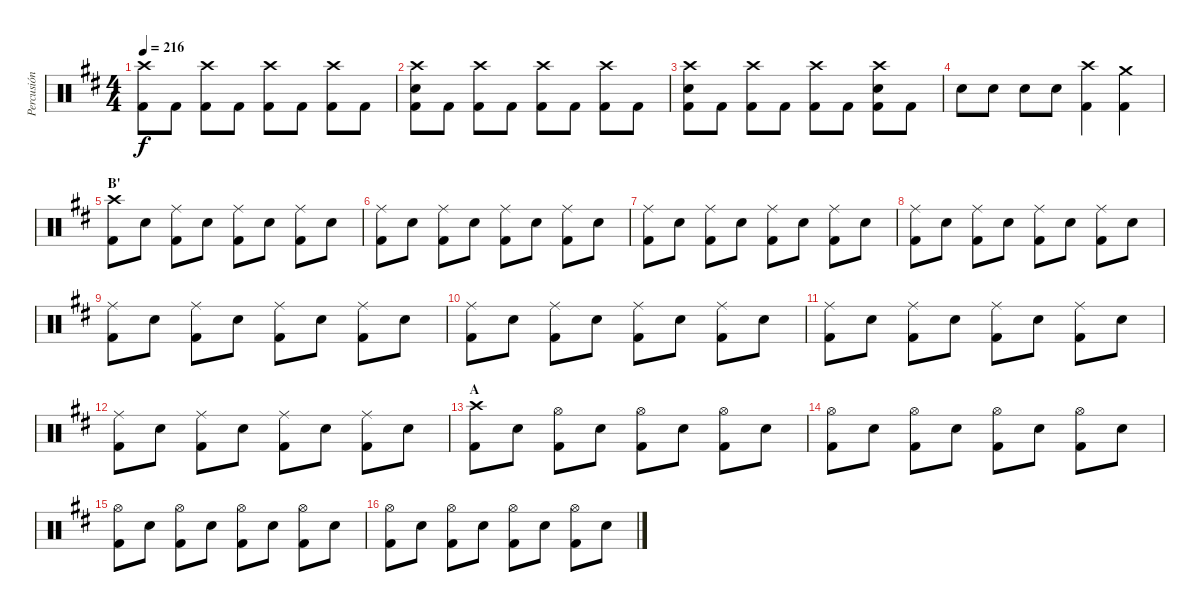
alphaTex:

\track ("Percusión" "Percusión") {instrument percussion}
\staff {score}
\articulation defaults
\ts (4 4)
\tempo 216
\clef neutral
\ks d
("Crash high (hit)" "Kick (hit) 2").8{dy f} "Kick (hit) 2".8 ("Crash high (hit)" "Kick (hit) 2").8 "Kick (hit) 2".8 ("Crash high (hit)" "Kick (hit) 2").8 "Kick (hit) 2".8 ("Crash high (hit)" "Kick (hit) 2").8 "Kick (hit) 2".8 |
("Crash high (hit)" "Electric Snare (hit)" "Kick (hit) 2").8 "Kick (hit) 2".8 ("Crash high (hit)" "Kick (hit) 2").8 "Kick (hit) 2".8 ("Crash high (hit)" "Kick (hit) 2").8 "Kick (hit) 2".8 ("Crash high (hit)" "Kick (hit) 2").8 "Kick (hit) 2".8 |
("Crash high (hit)" "Electric Snare (hit)" "Kick (hit) 2").8 "Kick (hit) 2".8 ("Crash high (hit)" "Kick (hit) 2").8 "Kick (hit) 2".8 ("Crash high (hit)" "Kick (hit) 2").8 "Kick (hit) 2".8 ("Crash high (hit)" "Electric Snare (hit)" "Kick (hit) 2").8 "Kick (hit) 2".8 |
"Electric Snare (hit)".8 "Electric Snare (hit)".8 "Electric Snare (hit)".8 "Electric Snare (hit)".8 ("Crash high (hit)" "Kick (hit) 2").4 ("Crash medium (hit)" "Kick (hit) 2").4 |
\section ("" "B'")
("Crash high (hit)" "Kick (hit) 2").8 "Electric Snare (hit)".8 ("Ride (middle)" "Kick (hit) 2").8 "Electric Snare (hit)".8 ("Ride (middle)" "Kick (hit) 2").8 "Electric Snare (hit)".8 ("Ride (middle)" "Kick (hit) 2").8 "Electric Snare (hit)".8 |
("Ride (middle)" "Kick (hit) 2").8 "Electric Snare (hit)".8 ("Ride (middle)" "Kick (hit) 2").8 "Electric Snare (hit)".8 ("Ride (middle)" "Kick (hit) 2").8 "Electric Snare (hit)".8 ("Ride (middle)" "Kick (hit) 2").8 "Electric Snare (hit)".8 |
("Ride (middle)" "Kick (hit) 2").8 "Electric Snare (hit)".8 ("Ride (middle)" "Kick (hit) 2").8 "Electric Snare (hit)".8 ("Ride (middle)" "Kick (hit) 2").8 "Electric Snare (hit)".8 ("Ride (middle)" "Kick (hit) 2").8 "Electric Snare (hit)".8 |
("Ride (middle)" "Kick (hit) 2").8 "Electric Snare (hit)".8 ("Ride (middle)" "Kick (hit) 2").8 "Electric Snare (hit)".8 ("Ride (middle)" "Kick (hit) 2").8 "Electric Snare (hit)".8 ("Ride (middle)" "Kick (hit) 2").8 "Electric Snare (hit)".8 |
("Ride (middle)" "Kick (hit) 2").8 "Electric Snare (hit)".8 ("Ride (middle)" "Kick (hit) 2").8 "Electric Snare (hit)".8 ("Ride (middle)" "Kick (hit) 2").8 "Electric Snare (hit)".8 ("Ride (middle)" "Kick (hit) 2").8 "Electric Snare (hit)".8 |
("Ride (middle)" "Kick (hit) 2").8 "Electric Snare (hit)".8 ("Ride (middle)" "Kick (hit) 2").8 "Electric Snare (hit)".8 ("Ride (middle)" "Kick (hit) 2").8 "Electric Snare (hit)".8 ("Ride (middle)" "Kick (hit) 2").8 "Electric Snare (hit)".8 |
("Ride (middle)" "Kick (hit) 2").8 "Electric Snare (hit)".8 ("Ride (middle)" "Kick (hit) 2").8 "Electric Snare (hit)".8 ("Ride (middle)" "Kick (hit) 2").8 "Electric Snare (hit)".8 ("Ride (middle)" "Kick (hit) 2").8 "Electric Snare (hit)".8 |
("Ride (middle)" "Kick (hit) 2").8 "Electric Snare (hit)".8 ("Ride (middle)" "Kick (hit) 2").8 "Electric Snare (hit)".8 ("Ride (middle)" "Kick (hit) 2").8 "Electric Snare (hit)".8 ("Ride (middle)" "Kick (hit) 2").8 "Electric Snare (hit)".8 |
\section ("" "A")
("Crash high (hit)" "Kick (hit) 2").8 "Electric Snare (hit)".8 ("Hi-Hat (open)" "Kick (hit) 2").8 "Electric Snare (hit)".8 ("Hi-Hat (open)" "Kick (hit) 2").8 "Electric Snare (hit)".8 ("Hi-Hat (open)" "Kick (hit) 2").8 "Electric Snare (hit)".8 |
("Hi-Hat (open)" "Kick (hit) 2").8 "Electric Snare (hit)".8 ("Hi-Hat (open)" "Kick (hit) 2").8 "Electric Snare (hit)".8 ("Hi-Hat (open)" "Kick (hit) 2").8 "Electric Snare (hit)".8 ("Hi-Hat (open)" "Kick (hit) 2").8 "Electric Snare (hit)".8 |
("Hi-Hat (open)" "Kick (hit) 2").8 "Electric Snare (hit)".8 ("Hi-Hat (open)" "Kick (hit) 2").8 "Electric Snare (hit)".8 ("Hi-Hat (open)" "Kick (hit) 2").8 "Electric Snare (hit)".8 ("Hi-Hat (open)" "Kick (hit) 2").8 "Electric Snare (hit)".8 |
("Hi-Hat (open)" "Kick (hit) 2").8 "Electric Snare (hit)".8 ("Hi-Hat (open)" "Kick (hit) 2").8 "Electric Snare (hit)".8 ("Hi-Hat (open)" "Kick (hit) 2").8 "Electric Snare (hit)".8 ("Hi-Hat (open)" "Kick (hit) 2").8 "Electric Snare (hit)".8
